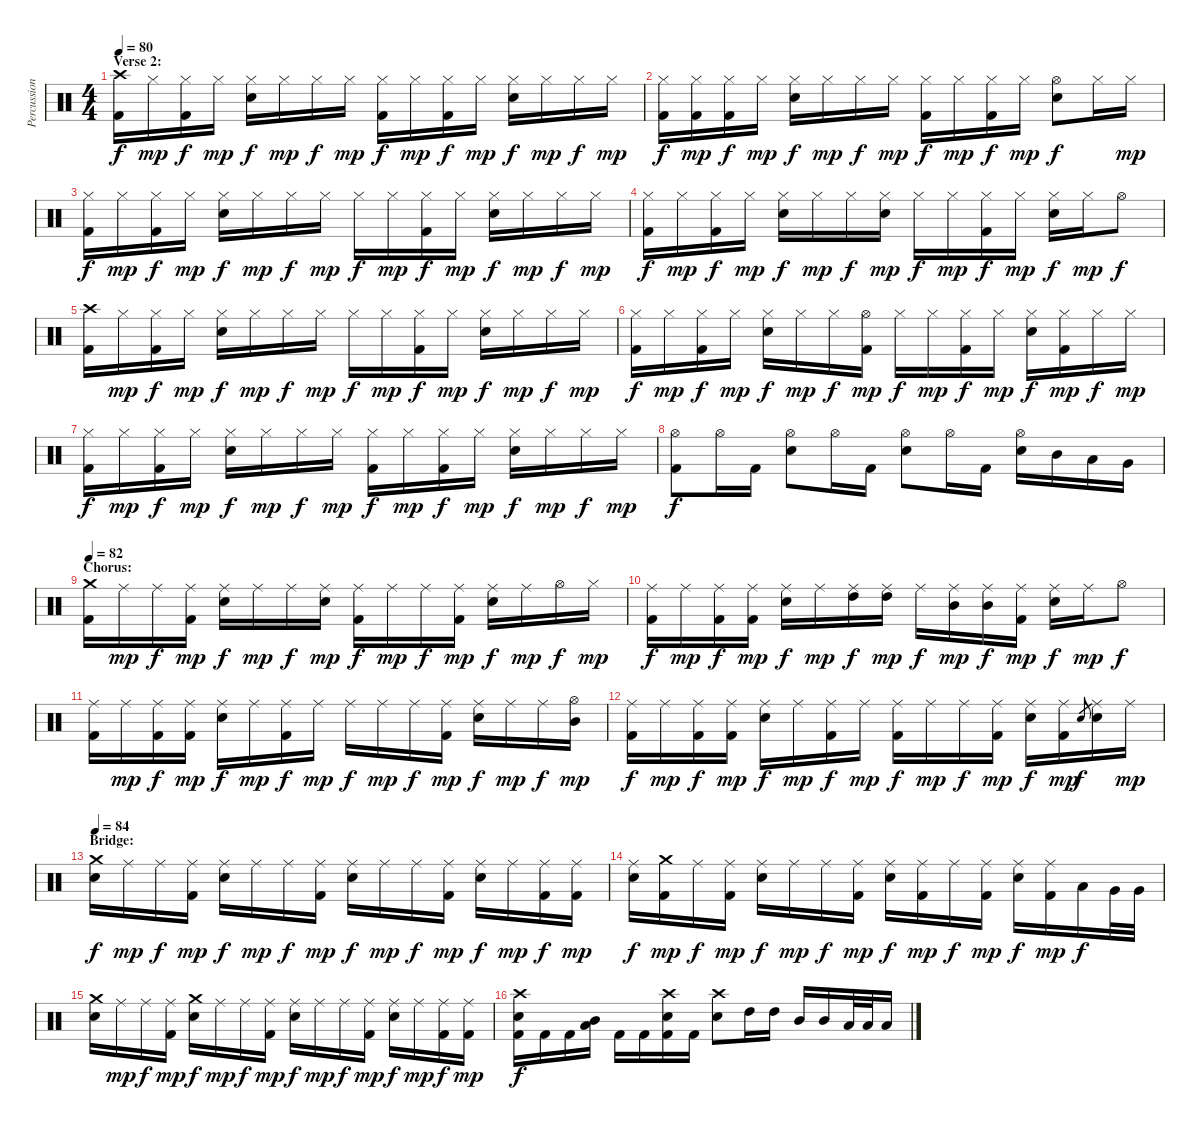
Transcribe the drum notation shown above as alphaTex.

\track ("Percussion" "Percussion") {instrument percussion}
\staff {score}
\articulation defaults
\ts (4 4)
\section ("" "Verse 2:")
\tempo 80
\clef neutral
\ks c
("Crash high (hit)" "Kick (hit) 2").16{dy f} "Hi-Hat (closed)".16{dy mp} ("Hi-Hat (closed)" "Kick (hit) 2").16{dy f} "Hi-Hat (closed)".16{dy mp} ("Hi-Hat (closed)" "Electric Snare (hit)").16{dy f} "Hi-Hat (closed)".16{dy mp} "Hi-Hat (closed)".16{dy f} "Hi-Hat (closed)".16{dy mp} ("Hi-Hat (closed)" "Kick (hit) 2").16{dy f} "Hi-Hat (closed)".16{dy mp} ("Hi-Hat (closed)" "Kick (hit) 2").16{dy f} "Hi-Hat (closed)".16{dy mp} ("Hi-Hat (closed)" "Electric Snare (hit)").16{dy f} "Hi-Hat (closed)".16{dy mp} "Hi-Hat (closed)".16{dy f} "Hi-Hat (closed)".16{dy mp} |
("Hi-Hat (closed)" "Kick (hit) 2").16{dy f} ("Hi-Hat (closed)" "Kick (hit) 2").16{dy mp} ("Hi-Hat (closed)" "Kick (hit) 2").16{dy f} "Hi-Hat (closed)".16{dy mp} ("Hi-Hat (closed)" "Electric Snare (hit)").16{dy f} "Hi-Hat (closed)".16{dy mp} "Hi-Hat (closed)".16{dy f} "Hi-Hat (closed)".16{dy mp} ("Hi-Hat (closed)" "Kick (hit) 2").16{dy f} "Hi-Hat (closed)".16{dy mp} ("Hi-Hat (closed)" "Kick (hit) 2").16{dy f} "Hi-Hat (closed)".16{dy mp} ("Hi-Hat (open)" "Electric Snare (hit)").8{dy f} "Hi-Hat (closed)".16 "Hi-Hat (closed)".16{dy mp} |
("Hi-Hat (closed)" "Kick (hit) 2").16{dy f} "Hi-Hat (closed)".16{dy mp} ("Hi-Hat (closed)" "Kick (hit) 2").16{dy f} "Hi-Hat (closed)".16{dy mp} ("Hi-Hat (closed)" "Electric Snare (hit)").16{dy f} "Hi-Hat (closed)".16{dy mp} "Hi-Hat (closed)".16{dy f} "Hi-Hat (closed)".16{dy mp} "Hi-Hat (closed)".16{dy f} "Hi-Hat (closed)".16{dy mp} ("Hi-Hat (closed)" "Kick (hit) 2").16{dy f} "Hi-Hat (closed)".16{dy mp} ("Hi-Hat (closed)" "Electric Snare (hit)").16{dy f} "Hi-Hat (closed)".16{dy mp} "Hi-Hat (closed)".16{dy f} "Hi-Hat (closed)".16{dy mp} |
("Hi-Hat (closed)" "Kick (hit) 2").16{dy f} "Hi-Hat (closed)".16{dy mp} ("Hi-Hat (closed)" "Kick (hit) 2").16{dy f} "Hi-Hat (closed)".16{dy mp} ("Hi-Hat (closed)" "Electric Snare (hit)").16{dy f} "Hi-Hat (closed)".16{dy mp} "Hi-Hat (closed)".16{dy f} ("Hi-Hat (closed)" "Electric Snare (hit)").16{dy mp} "Hi-Hat (closed)".16{dy f} "Hi-Hat (closed)".16{dy mp} ("Hi-Hat (closed)" "Kick (hit) 2").16{dy f} "Hi-Hat (closed)".16{dy mp} ("Hi-Hat (closed)" "Electric Snare (hit)").16{dy f} "Hi-Hat (closed)".16{dy mp} "Hi-Hat (open)".8{dy f} |
("Crash high (hit)" "Kick (hit) 2").16 "Hi-Hat (closed)".16{dy mp} ("Hi-Hat (closed)" "Kick (hit) 2").16{dy f} "Hi-Hat (closed)".16{dy mp} ("Hi-Hat (closed)" "Electric Snare (hit)").16{dy f} "Hi-Hat (closed)".16{dy mp} "Hi-Hat (closed)".16{dy f} "Hi-Hat (closed)".16{dy mp} "Hi-Hat (closed)".16{dy f} "Hi-Hat (closed)".16{dy mp} ("Hi-Hat (closed)" "Kick (hit) 2").16{dy f} "Hi-Hat (closed)".16{dy mp} ("Hi-Hat (closed)" "Electric Snare (hit)").16{dy f} "Hi-Hat (closed)".16{dy mp} "Hi-Hat (closed)".16{dy f} "Hi-Hat (closed)".16{dy mp} |
("Hi-Hat (closed)" "Kick (hit) 2").16{dy f} "Hi-Hat (closed)".16{dy mp} ("Hi-Hat (closed)" "Kick (hit) 2").16{dy f} "Hi-Hat (closed)".16{dy mp} ("Hi-Hat (closed)" "Electric Snare (hit)").16{dy f} "Hi-Hat (closed)".16{dy mp} "Hi-Hat (closed)".16{dy f} ("Hi-Hat (open)" "Kick (hit) 2").16{dy mp} "Hi-Hat (closed)".16{dy f} "Hi-Hat (closed)".16{dy mp} ("Hi-Hat (closed)" "Kick (hit) 2").16{dy f} "Hi-Hat (closed)".16{dy mp} ("Hi-Hat (closed)" "Electric Snare (hit)").16{dy f} ("Hi-Hat (closed)" "Kick (hit) 2").16{dy mp} "Hi-Hat (closed)".16{dy f} "Hi-Hat (closed)".16{dy mp} |
("Hi-Hat (closed)" "Kick (hit) 2").16{dy f} "Hi-Hat (closed)".16{dy mp} ("Hi-Hat (closed)" "Kick (hit) 2").16{dy f} "Hi-Hat (closed)".16{dy mp} ("Hi-Hat (closed)" "Electric Snare (hit)").16{dy f} "Hi-Hat (closed)".16{dy mp} "Hi-Hat (closed)".16{dy f} "Hi-Hat (closed)".16{dy mp} ("Hi-Hat (closed)" "Kick (hit) 2").16{dy f} "Hi-Hat (closed)".16{dy mp} ("Hi-Hat (closed)" "Kick (hit) 2").16{dy f} "Hi-Hat (closed)".16{dy mp} ("Hi-Hat (closed)" "Electric Snare (hit)").16{dy f} "Hi-Hat (closed)".16{dy mp} "Hi-Hat (closed)".16{dy f} "Hi-Hat (closed)".16{dy mp} |
("Hi-Hat (open)" "Kick (hit) 2").8{dy f} "Hi-Hat (open)".16 "Kick (hit) 2".16 ("Hi-Hat (open)" "Electric Snare (hit)").8 "Hi-Hat (open)".16 "Kick (hit) 2".16 ("Hi-Hat (open)" "Electric Snare (hit)").8 "Hi-Hat (open)".16 "Kick (hit) 2".16 ("Hi-Hat (open)" "Electric Snare (hit)").16 "Mid Tom (hit)".16 "Low Tom (hit)".16 "Very Low Tom (hit)".16 |
\section ("" "Chorus:")
\tempo 82
("Crash medium (hit)" "Kick (hit) 2").16 "Ride (middle)".16{dy mp} "Ride (middle)".16{dy f} ("Ride (middle)" "Kick (hit) 2").16{dy mp} ("Ride (middle)" "Electric Snare (hit)").16{dy f} "Ride (middle)".16{dy mp} "Ride (middle)".16{dy f} ("Ride (middle)" "Electric Snare (hit)").16{dy mp} ("Ride (middle)" "Kick (hit) 2").16{dy f} "Ride (middle)".16{dy mp} "Ride (middle)".16{dy f} ("Ride (middle)" "Kick (hit) 2").16{dy mp} ("Ride (middle)" "Electric Snare (hit)").16{dy f} "Ride (middle)".16{dy mp} "Hi-Hat (open)".16{dy f} "Hi-Hat (closed)".16{dy mp} |
("Ride (middle)" "Kick (hit) 2").16{dy f} "Ride (middle)".16{dy mp} ("Ride (middle)" "Kick (hit) 2").16{dy f} ("Ride (middle)" "Kick (hit) 2").16{dy mp} ("Ride (middle)" "Electric Snare (hit)").16{dy f} "Ride (middle)".16{dy mp} ("Ride (middle)" "High Tom (hit)").16{dy f} ("Ride (middle)" "High Tom (hit)").16{dy mp} "Ride (middle)".16{dy f} ("Ride (middle)" "Mid Tom (hit)").16{dy mp} ("Ride (middle)" "Mid Tom (hit)").16{dy f} ("Ride (middle)" "Kick (hit) 2").16{dy mp} ("Ride (middle)" "Electric Snare (hit)").16{dy f} "Ride (middle)".16{dy mp} "Hi-Hat (open)".8{dy f} |
("Ride (middle)" "Kick (hit) 2").16 "Ride (middle)".16{dy mp} ("Ride (middle)" "Kick (hit) 2").16{dy f} ("Ride (middle)" "Kick (hit) 2").16{dy mp} ("Ride (middle)" "Electric Snare (hit)").16{dy f} "Ride (middle)".16{dy mp} ("Ride (middle)" "Kick (hit) 2").16{dy f} "Ride (middle)".16{dy mp} "Ride (middle)".16{dy f} "Ride (middle)".16{dy mp} "Ride (middle)".16{dy f} ("Ride (middle)" "Kick (hit) 2").16{dy mp} ("Ride (middle)" "Electric Snare (hit)").16{dy f} "Ride (middle)".16{dy mp} "Ride (middle)".16{dy f} ("Hi-Hat (open)" "Mid Tom (hit)").16{dy mp} |
("Ride (middle)" "Kick (hit) 2").16{dy f} "Ride (middle)".16{dy mp} ("Ride (middle)" "Kick (hit) 2").16{dy f} ("Ride (middle)" "Kick (hit) 2").16{dy mp} ("Ride (middle)" "Electric Snare (hit)").16{dy f} "Ride (middle)".16{dy mp} ("Ride (middle)" "Kick (hit) 2").16{dy f} "Ride (middle)".16{dy mp} ("Ride (middle)" "Kick (hit) 2").16{dy f} "Ride (middle)".16{dy mp} "Ride (middle)".16{dy f} ("Ride (middle)" "Kick (hit) 2").16{dy mp} ("Ride (middle)" "Electric Snare (hit)").16{dy f} ("Ride (middle)" "Kick (hit) 2").16{dy mp} "Electric Snare (hit)".8{gr dy f} ("Ride (middle)" "Electric Snare (hit)").16 "Ride (middle)".16{dy mp} |
\section ("" "Bridge:")
\tempo 84
("Crash medium (hit)" "Electric Snare (hit)").16{dy f} "Ride (middle)".16{dy mp} "Ride (middle)".16{dy f} ("Ride (middle)" "Kick (hit) 2").16{dy mp} ("Ride (middle)" "Electric Snare (hit)").16{dy f} "Ride (middle)".16{dy mp} "Ride (middle)".16{dy f} ("Ride (middle)" "Kick (hit) 2").16{dy mp} ("Ride (middle)" "Electric Snare (hit)").16{dy f} "Ride (middle)".16{dy mp} "Ride (middle)".16{dy f} ("Ride (middle)" "Kick (hit) 2").16{dy mp} ("Ride (middle)" "Electric Snare (hit)").16{dy f} "Ride (middle)".16{dy mp} ("Ride (middle)" "Kick (hit) 2").16{dy f} ("Ride (middle)" "Kick (hit) 2").16{dy mp} |
("Ride (middle)" "Electric Snare (hit)").16{dy f} ("Crash medium (hit)" "Kick (hit) 2").16{dy mp} "Ride (middle)".16{dy f} ("Ride (middle)" "Kick (hit) 2").16{dy mp} ("Ride (middle)" "Electric Snare (hit)").16{dy f} "Ride (middle)".16{dy mp} "Ride (middle)".16{dy f} ("Ride (middle)" "Kick (hit) 2").16{dy mp} ("Ride (middle)" "Electric Snare (hit)").16{dy f} ("Ride (middle)" "Kick (hit) 2").16{dy mp} "Ride (middle)".16{dy f} ("Ride (middle)" "Kick (hit) 2").16{dy mp} ("Ride (middle)" "Electric Snare (hit)").16{dy f} ("Ride (middle)" "Kick (hit) 2").16{dy mp} "Low Tom (hit)".16{dy f} "Very Low Tom (hit)".32 "Very Low Tom (hit)".32 |
("Crash medium (hit)" "Electric Snare (hit)").16 "Ride (middle)".16{dy mp} "Ride (middle)".16{dy f} ("Ride (middle)" "Kick (hit) 2").16{dy mp} ("Crash medium (hit)" "Electric Snare (hit)").16{dy f} "Ride (middle)".16{dy mp} "Ride (middle)".16{dy f} ("Ride (middle)" "Kick (hit) 2").16{dy mp} ("Ride (middle)" "Electric Snare (hit)").16{dy f} "Ride (middle)".16{dy mp} "Ride (middle)".16{dy f} ("Ride (middle)" "Kick (hit) 2").16{dy mp} ("Ride (middle)" "Electric Snare (hit)").16{dy f} "Ride (middle)".16{dy mp} ("Ride (middle)" "Kick (hit) 2").16{dy f} ("Ride (middle)" "Kick (hit) 2").16{dy mp} |
("Crash high (hit)" "Electric Snare (hit)" "Kick (hit) 2").16{dy f} "Kick (hit) 2".16 "Kick (hit) 2".16 ("Mid Tom (hit)" "Low Tom (hit)").16 "Kick (hit) 2".16 "Kick (hit) 2".16 ("Crash high (hit)" "Electric Snare (hit)" "Kick (hit) 2").16 "Kick (hit) 2".16 ("Crash high (hit)" "Electric Snare (hit)").8 "High Tom (hit)".16 "High Tom (hit)".16 "Mid Tom (hit)".16 "Mid Tom (hit)".16 "Low Tom (hit)".32 "Low Tom (hit)".32 "Low Tom (hit)".16
